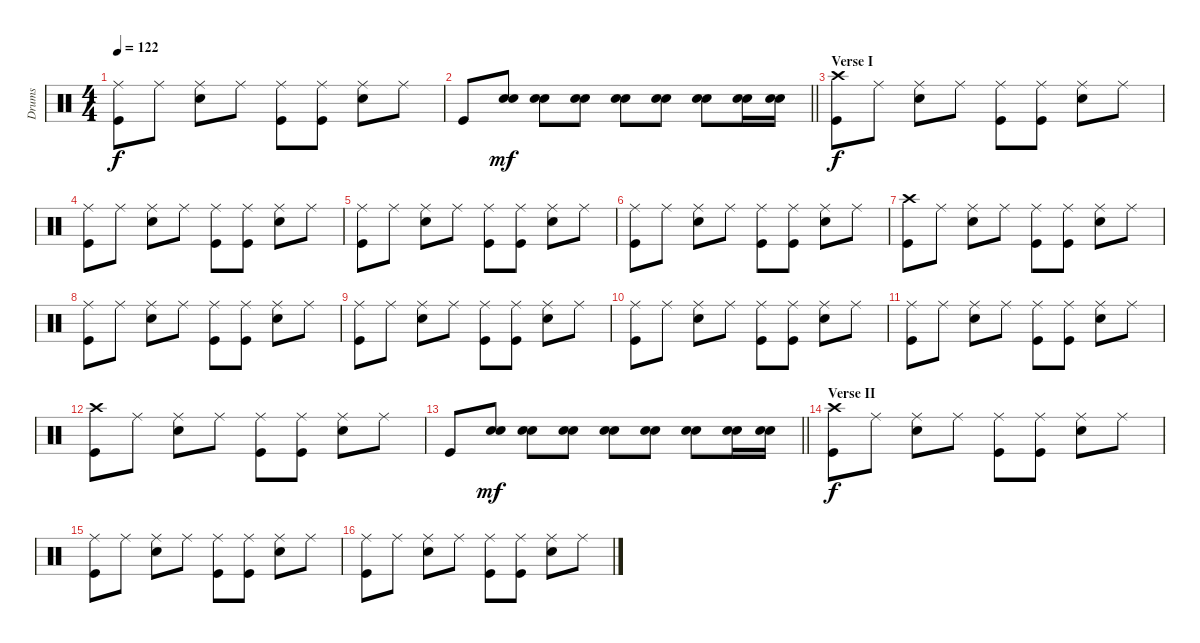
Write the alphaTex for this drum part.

\track ("Drums" "Drums") {instrument percussion}
\staff {score}
\articulation defaults
\ts (4 4)
\tempo 122
\clef neutral
\ks c
("Ride (middle)" "Kick (hit)").8{dy f} "Ride (middle)".8 ("Ride (middle)" "Electric Snare (hit)").8 "Ride (middle)".8 ("Ride (middle)" "Kick (hit)").8 ("Ride (middle)" "Kick (hit)").8 ("Ride (middle)" "Electric Snare (hit)").8 "Ride (middle)".8 |
\barLineRight lightlight "Kick (hit)".8
("Electric Snare (hit)" "Snare (hit) 2").8{dy mf} ("Electric Snare (hit)" "Snare (hit) 2").8 ("Electric Snare (hit)" "Snare (hit) 2").8 ("Electric Snare (hit)" "Snare (hit) 2").8 ("Electric Snare (hit)" "Snare (hit) 2").8 ("Electric Snare (hit)" "Snare (hit) 2").8 ("Electric Snare (hit)" "Snare (hit) 2").16 ("Electric Snare (hit)" "Snare (hit) 2").16 |
\section ("" "Verse I")
("Crash high (hit)" "Kick (hit)").8{dy f} "Ride (middle)".8 ("Ride (middle)" "Electric Snare (hit)").8 "Ride (middle)".8 ("Ride (middle)" "Kick (hit)").8 ("Ride (middle)" "Kick (hit)").8 ("Ride (middle)" "Electric Snare (hit)").8 "Ride (middle)".8 |
("Ride (middle)" "Kick (hit)").8 "Ride (middle)".8 ("Ride (middle)" "Electric Snare (hit)").8 "Ride (middle)".8 ("Ride (middle)" "Kick (hit)").8 ("Ride (middle)" "Kick (hit)").8 ("Ride (middle)" "Electric Snare (hit)").8 "Ride (middle)".8 |
("Ride (middle)" "Kick (hit)").8 "Ride (middle)".8 ("Ride (middle)" "Electric Snare (hit)").8 "Ride (middle)".8 ("Ride (middle)" "Kick (hit)").8 ("Ride (middle)" "Kick (hit)").8 ("Ride (middle)" "Electric Snare (hit)").8 "Ride (middle)".8 |
("Ride (middle)" "Kick (hit)").8 "Ride (middle)".8 ("Ride (middle)" "Electric Snare (hit)").8 "Ride (middle)".8 ("Ride (middle)" "Kick (hit)").8 ("Ride (middle)" "Kick (hit)").8 ("Ride (middle)" "Electric Snare (hit)").8 "Ride (middle)".8 |
("Crash high (hit)" "Kick (hit)").8 "Ride (middle)".8 ("Ride (middle)" "Electric Snare (hit)").8 "Ride (middle)".8 ("Ride (middle)" "Kick (hit)").8 ("Ride (middle)" "Kick (hit)").8 ("Ride (middle)" "Electric Snare (hit)").8 "Ride (middle)".8 |
("Ride (middle)" "Kick (hit)").8 "Ride (middle)".8 ("Ride (middle)" "Electric Snare (hit)").8 "Ride (middle)".8 ("Ride (middle)" "Kick (hit)").8 ("Ride (middle)" "Kick (hit)").8 ("Ride (middle)" "Electric Snare (hit)").8 "Ride (middle)".8 |
("Ride (middle)" "Kick (hit)").8 "Ride (middle)".8 ("Ride (middle)" "Electric Snare (hit)").8 "Ride (middle)".8 ("Ride (middle)" "Kick (hit)").8 ("Ride (middle)" "Kick (hit)").8 ("Ride (middle)" "Electric Snare (hit)").8 "Ride (middle)".8 |
("Ride (middle)" "Kick (hit)").8 "Ride (middle)".8 ("Ride (middle)" "Electric Snare (hit)").8 "Ride (middle)".8 ("Ride (middle)" "Kick (hit)").8 ("Ride (middle)" "Kick (hit)").8 ("Ride (middle)" "Electric Snare (hit)").8 "Ride (middle)".8 |
("Ride (middle)" "Kick (hit)").8 "Ride (middle)".8 ("Ride (middle)" "Electric Snare (hit)").8 "Ride (middle)".8 ("Ride (middle)" "Kick (hit)").8 ("Ride (middle)" "Kick (hit)").8 ("Ride (middle)" "Electric Snare (hit)").8 "Ride (middle)".8 |
("Crash high (hit)" "Kick (hit)").8 "Ride (middle)".8 ("Ride (middle)" "Electric Snare (hit)").8 "Ride (middle)".8 ("Ride (middle)" "Kick (hit)").8 ("Ride (middle)" "Kick (hit)").8 ("Ride (middle)" "Electric Snare (hit)").8 "Ride (middle)".8 |
\barLineRight lightlight "Kick (hit)".8
("Electric Snare (hit)" "Snare (hit) 2").8{dy mf} ("Electric Snare (hit)" "Snare (hit) 2").8 ("Electric Snare (hit)" "Snare (hit) 2").8 ("Electric Snare (hit)" "Snare (hit) 2").8 ("Electric Snare (hit)" "Snare (hit) 2").8 ("Electric Snare (hit)" "Snare (hit) 2").8 ("Electric Snare (hit)" "Snare (hit) 2").16 ("Electric Snare (hit)" "Snare (hit) 2").16 |
\section ("" "Verse II")
("Crash high (hit)" "Kick (hit)").8{dy f} "Ride (middle)".8 ("Ride (middle)" "Electric Snare (hit)").8 "Ride (middle)".8 ("Ride (middle)" "Kick (hit)").8 ("Ride (middle)" "Kick (hit)").8 ("Ride (middle)" "Electric Snare (hit)").8 "Ride (middle)".8 |
("Ride (middle)" "Kick (hit)").8 "Ride (middle)".8 ("Ride (middle)" "Electric Snare (hit)").8 "Ride (middle)".8 ("Ride (middle)" "Kick (hit)").8 ("Ride (middle)" "Kick (hit)").8 ("Ride (middle)" "Electric Snare (hit)").8 "Ride (middle)".8 |
("Ride (middle)" "Kick (hit)").8 "Ride (middle)".8 ("Ride (middle)" "Electric Snare (hit)").8 "Ride (middle)".8 ("Ride (middle)" "Kick (hit)").8 ("Ride (middle)" "Kick (hit)").8 ("Ride (middle)" "Electric Snare (hit)").8 "Ride (middle)".8
